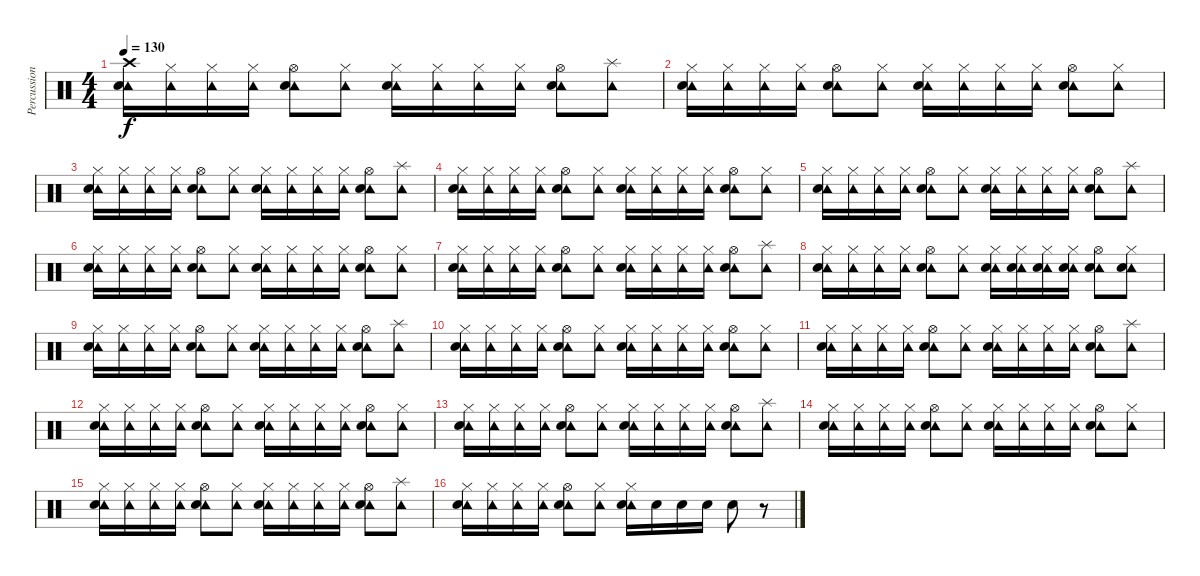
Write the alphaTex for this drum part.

\track ("Percussion" "Percussion") {instrument percussion}
\staff {score}
\articulation defaults
\ts (4 4)
\tempo 130
\clef neutral
\ks c
("Crash high (hit)" "Tambourine (hit)" "Electric Snare (hit)").16{dy f volume 16} ("Hi-Hat (closed)" "Tambourine (hit)").16 ("Hi-Hat (closed)" "Tambourine (hit)").16 ("Hi-Hat (closed)" "Tambourine (hit)").16 ("Hi-Hat (open)" "Tambourine (hit)" "Electric Snare (hit)").8 ("Hi-Hat (closed)" "Tambourine (hit)").8 ("Hi-Hat (closed)" "Tambourine (hit)" "Electric Snare (hit)").16 ("Hi-Hat (closed)" "Tambourine (hit)").16 ("Hi-Hat (closed)" "Tambourine (hit)").16 ("Hi-Hat (closed)" "Tambourine (hit)").16 ("Hi-Hat (open)" "Tambourine (hit)" "Electric Snare (hit)").8 ("Splash (hit)" "Tambourine (hit)").8 |
("Hi-Hat (closed)" "Tambourine (hit)" "Electric Snare (hit)").16 ("Hi-Hat (closed)" "Tambourine (hit)").16 ("Hi-Hat (closed)" "Tambourine (hit)").16 ("Hi-Hat (closed)" "Tambourine (hit)").16 ("Hi-Hat (open)" "Tambourine (hit)" "Electric Snare (hit)").8 ("Hi-Hat (closed)" "Tambourine (hit)").8 ("Hi-Hat (closed)" "Tambourine (hit)" "Electric Snare (hit)").16 ("Hi-Hat (closed)" "Tambourine (hit)").16 ("Hi-Hat (closed)" "Tambourine (hit)").16 ("Hi-Hat (closed)" "Tambourine (hit)").16 ("Hi-Hat (open)" "Tambourine (hit)" "Electric Snare (hit)").8 ("Hi-Hat (closed)" "Tambourine (hit)").8 |
("Hi-Hat (closed)" "Tambourine (hit)" "Electric Snare (hit)").16{volume 16} ("Hi-Hat (closed)" "Tambourine (hit)").16 ("Hi-Hat (closed)" "Tambourine (hit)").16 ("Hi-Hat (closed)" "Tambourine (hit)").16 ("Hi-Hat (open)" "Tambourine (hit)" "Electric Snare (hit)").8 ("Hi-Hat (closed)" "Tambourine (hit)").8 ("Hi-Hat (closed)" "Tambourine (hit)" "Electric Snare (hit)").16 ("Hi-Hat (closed)" "Tambourine (hit)").16 ("Hi-Hat (closed)" "Tambourine (hit)").16 ("Hi-Hat (closed)" "Tambourine (hit)").16 ("Hi-Hat (open)" "Tambourine (hit)" "Electric Snare (hit)").8 ("Splash (hit)" "Tambourine (hit)").8 |
("Hi-Hat (closed)" "Tambourine (hit)" "Electric Snare (hit)").16 ("Hi-Hat (closed)" "Tambourine (hit)").16 ("Hi-Hat (closed)" "Tambourine (hit)").16 ("Hi-Hat (closed)" "Tambourine (hit)").16 ("Hi-Hat (open)" "Tambourine (hit)" "Electric Snare (hit)").8 ("Hi-Hat (closed)" "Tambourine (hit)").8 ("Hi-Hat (closed)" "Tambourine (hit)" "Electric Snare (hit)").16 ("Hi-Hat (closed)" "Tambourine (hit)").16 ("Hi-Hat (closed)" "Tambourine (hit)").16 ("Hi-Hat (closed)" "Tambourine (hit)").16 ("Hi-Hat (open)" "Tambourine (hit)" "Electric Snare (hit)").8 ("Hi-Hat (closed)" "Tambourine (hit)").8 |
("Hi-Hat (closed)" "Tambourine (hit)" "Electric Snare (hit)").16{volume 16} ("Hi-Hat (closed)" "Tambourine (hit)").16 ("Hi-Hat (closed)" "Tambourine (hit)").16 ("Hi-Hat (closed)" "Tambourine (hit)").16 ("Hi-Hat (open)" "Tambourine (hit)" "Electric Snare (hit)").8 ("Hi-Hat (closed)" "Tambourine (hit)").8 ("Hi-Hat (closed)" "Tambourine (hit)" "Electric Snare (hit)").16 ("Hi-Hat (closed)" "Tambourine (hit)").16 ("Hi-Hat (closed)" "Tambourine (hit)").16 ("Hi-Hat (closed)" "Tambourine (hit)").16 ("Hi-Hat (open)" "Tambourine (hit)" "Electric Snare (hit)").8 ("Splash (hit)" "Tambourine (hit)").8 |
("Hi-Hat (closed)" "Tambourine (hit)" "Electric Snare (hit)").16 ("Hi-Hat (closed)" "Tambourine (hit)").16 ("Hi-Hat (closed)" "Tambourine (hit)").16 ("Hi-Hat (closed)" "Tambourine (hit)").16 ("Hi-Hat (open)" "Tambourine (hit)" "Electric Snare (hit)").8 ("Hi-Hat (closed)" "Tambourine (hit)").8 ("Hi-Hat (closed)" "Tambourine (hit)" "Electric Snare (hit)").16 ("Hi-Hat (closed)" "Tambourine (hit)").16 ("Hi-Hat (closed)" "Tambourine (hit)").16 ("Hi-Hat (closed)" "Tambourine (hit)").16 ("Hi-Hat (open)" "Tambourine (hit)" "Electric Snare (hit)").8 ("Hi-Hat (closed)" "Tambourine (hit)").8 |
("Hi-Hat (closed)" "Tambourine (hit)" "Electric Snare (hit)").16 ("Hi-Hat (closed)" "Tambourine (hit)").16 ("Hi-Hat (closed)" "Tambourine (hit)").16 ("Hi-Hat (closed)" "Tambourine (hit)").16 ("Hi-Hat (open)" "Tambourine (hit)" "Electric Snare (hit)").8 ("Hi-Hat (closed)" "Tambourine (hit)").8 ("Hi-Hat (closed)" "Tambourine (hit)" "Electric Snare (hit)").16 ("Hi-Hat (closed)" "Tambourine (hit)").16 ("Hi-Hat (closed)" "Tambourine (hit)").16 ("Hi-Hat (closed)" "Tambourine (hit)").16 ("Hi-Hat (open)" "Tambourine (hit)" "Electric Snare (hit)").8 ("Splash (hit)" "Tambourine (hit)").8 |
("Hi-Hat (closed)" "Tambourine (hit)" "Electric Snare (hit)").16 ("Hi-Hat (closed)" "Tambourine (hit)").16 ("Hi-Hat (closed)" "Tambourine (hit)").16 ("Hi-Hat (closed)" "Tambourine (hit)").16 ("Hi-Hat (open)" "Tambourine (hit)" "Electric Snare (hit)").8 ("Hi-Hat (closed)" "Tambourine (hit)").8 ("Hi-Hat (closed)" "Tambourine (hit)" "Electric Snare (hit)").16 ("Hi-Hat (closed)" "Tambourine (hit)" "Electric Snare (hit)").16 ("Hi-Hat (closed)" "Tambourine (hit)" "Electric Snare (hit)").16 ("Hi-Hat (closed)" "Tambourine (hit)" "Electric Snare (hit)").16 ("Hi-Hat (open)" "Tambourine (hit)" "Electric Snare (hit)").8 ("Hi-Hat (closed)" "Tambourine (hit)" "Electric Snare (hit)").8 |
("Hi-Hat (closed)" "Tambourine (hit)" "Electric Snare (hit)").16{volume 16} ("Hi-Hat (closed)" "Tambourine (hit)").16 ("Hi-Hat (closed)" "Tambourine (hit)").16 ("Hi-Hat (closed)" "Tambourine (hit)").16 ("Hi-Hat (open)" "Tambourine (hit)" "Electric Snare (hit)").8 ("Hi-Hat (closed)" "Tambourine (hit)").8 ("Hi-Hat (closed)" "Tambourine (hit)" "Electric Snare (hit)").16 ("Hi-Hat (closed)" "Tambourine (hit)").16 ("Hi-Hat (closed)" "Tambourine (hit)").16 ("Hi-Hat (closed)" "Tambourine (hit)").16 ("Hi-Hat (open)" "Tambourine (hit)" "Electric Snare (hit)").8 ("Splash (hit)" "Tambourine (hit)").8 |
("Hi-Hat (closed)" "Tambourine (hit)" "Electric Snare (hit)").16 ("Hi-Hat (closed)" "Tambourine (hit)").16 ("Hi-Hat (closed)" "Tambourine (hit)").16 ("Hi-Hat (closed)" "Tambourine (hit)").16 ("Hi-Hat (open)" "Tambourine (hit)" "Electric Snare (hit)").8 ("Hi-Hat (closed)" "Tambourine (hit)").8 ("Hi-Hat (closed)" "Tambourine (hit)" "Electric Snare (hit)").16 ("Hi-Hat (closed)" "Tambourine (hit)").16 ("Hi-Hat (closed)" "Tambourine (hit)").16 ("Hi-Hat (closed)" "Tambourine (hit)").16 ("Hi-Hat (open)" "Tambourine (hit)" "Electric Snare (hit)").8 ("Hi-Hat (closed)" "Tambourine (hit)").8 |
("Hi-Hat (closed)" "Tambourine (hit)" "Electric Snare (hit)").16{volume 16} ("Hi-Hat (closed)" "Tambourine (hit)").16 ("Hi-Hat (closed)" "Tambourine (hit)").16 ("Hi-Hat (closed)" "Tambourine (hit)").16 ("Hi-Hat (open)" "Tambourine (hit)" "Electric Snare (hit)").8 ("Hi-Hat (closed)" "Tambourine (hit)").8 ("Hi-Hat (closed)" "Tambourine (hit)" "Electric Snare (hit)").16 ("Hi-Hat (closed)" "Tambourine (hit)").16 ("Hi-Hat (closed)" "Tambourine (hit)").16 ("Hi-Hat (closed)" "Tambourine (hit)").16 ("Hi-Hat (open)" "Tambourine (hit)" "Electric Snare (hit)").8 ("Splash (hit)" "Tambourine (hit)").8 |
("Hi-Hat (closed)" "Tambourine (hit)" "Electric Snare (hit)").16 ("Hi-Hat (closed)" "Tambourine (hit)").16 ("Hi-Hat (closed)" "Tambourine (hit)").16 ("Hi-Hat (closed)" "Tambourine (hit)").16 ("Hi-Hat (open)" "Tambourine (hit)" "Electric Snare (hit)").8 ("Hi-Hat (closed)" "Tambourine (hit)").8 ("Hi-Hat (closed)" "Tambourine (hit)" "Electric Snare (hit)").16 ("Hi-Hat (closed)" "Tambourine (hit)").16 ("Hi-Hat (closed)" "Tambourine (hit)").16 ("Hi-Hat (closed)" "Tambourine (hit)").16 ("Hi-Hat (open)" "Tambourine (hit)" "Electric Snare (hit)").8 ("Hi-Hat (closed)" "Tambourine (hit)").8 |
("Hi-Hat (closed)" "Tambourine (hit)" "Electric Snare (hit)").16{volume 16} ("Hi-Hat (closed)" "Tambourine (hit)").16 ("Hi-Hat (closed)" "Tambourine (hit)").16 ("Hi-Hat (closed)" "Tambourine (hit)").16 ("Hi-Hat (open)" "Tambourine (hit)" "Electric Snare (hit)").8 ("Hi-Hat (closed)" "Tambourine (hit)").8 ("Hi-Hat (closed)" "Tambourine (hit)" "Electric Snare (hit)").16 ("Hi-Hat (closed)" "Tambourine (hit)").16 ("Hi-Hat (closed)" "Tambourine (hit)").16 ("Hi-Hat (closed)" "Tambourine (hit)").16 ("Hi-Hat (open)" "Tambourine (hit)" "Electric Snare (hit)").8 ("Splash (hit)" "Tambourine (hit)").8 |
("Hi-Hat (closed)" "Tambourine (hit)" "Electric Snare (hit)").16 ("Hi-Hat (closed)" "Tambourine (hit)").16 ("Hi-Hat (closed)" "Tambourine (hit)").16 ("Hi-Hat (closed)" "Tambourine (hit)").16 ("Hi-Hat (open)" "Tambourine (hit)" "Electric Snare (hit)").8 ("Hi-Hat (closed)" "Tambourine (hit)").8 ("Hi-Hat (closed)" "Tambourine (hit)" "Electric Snare (hit)").16 ("Hi-Hat (closed)" "Tambourine (hit)").16 ("Hi-Hat (closed)" "Tambourine (hit)").16 ("Hi-Hat (closed)" "Tambourine (hit)").16 ("Hi-Hat (open)" "Tambourine (hit)" "Electric Snare (hit)").8 ("Hi-Hat (closed)" "Tambourine (hit)").8 |
("Hi-Hat (closed)" "Tambourine (hit)" "Electric Snare (hit)").16 ("Hi-Hat (closed)" "Tambourine (hit)").16 ("Hi-Hat (closed)" "Tambourine (hit)").16 ("Hi-Hat (closed)" "Tambourine (hit)").16 ("Hi-Hat (open)" "Tambourine (hit)" "Electric Snare (hit)").8 ("Hi-Hat (closed)" "Tambourine (hit)").8 ("Hi-Hat (closed)" "Tambourine (hit)" "Electric Snare (hit)").16 ("Hi-Hat (closed)" "Tambourine (hit)").16 ("Hi-Hat (closed)" "Tambourine (hit)").16 ("Hi-Hat (closed)" "Tambourine (hit)").16 ("Hi-Hat (open)" "Tambourine (hit)" "Electric Snare (hit)").8 ("Splash (hit)" "Tambourine (hit)").8 |
("Hi-Hat (closed)" "Tambourine (hit)" "Electric Snare (hit)").16 ("Hi-Hat (closed)" "Tambourine (hit)").16 ("Hi-Hat (closed)" "Tambourine (hit)").16 ("Hi-Hat (closed)" "Tambourine (hit)").16 ("Hi-Hat (open)" "Tambourine (hit)" "Electric Snare (hit)").8 ("Hi-Hat (closed)" "Tambourine (hit)").8 ("Hi-Hat (closed)" "Tambourine (hit)" "Electric Snare (hit)").16 "Electric Snare (hit)".16 "Electric Snare (hit)".16 "Electric Snare (hit)".16 "Electric Snare (hit)".8 r.8
